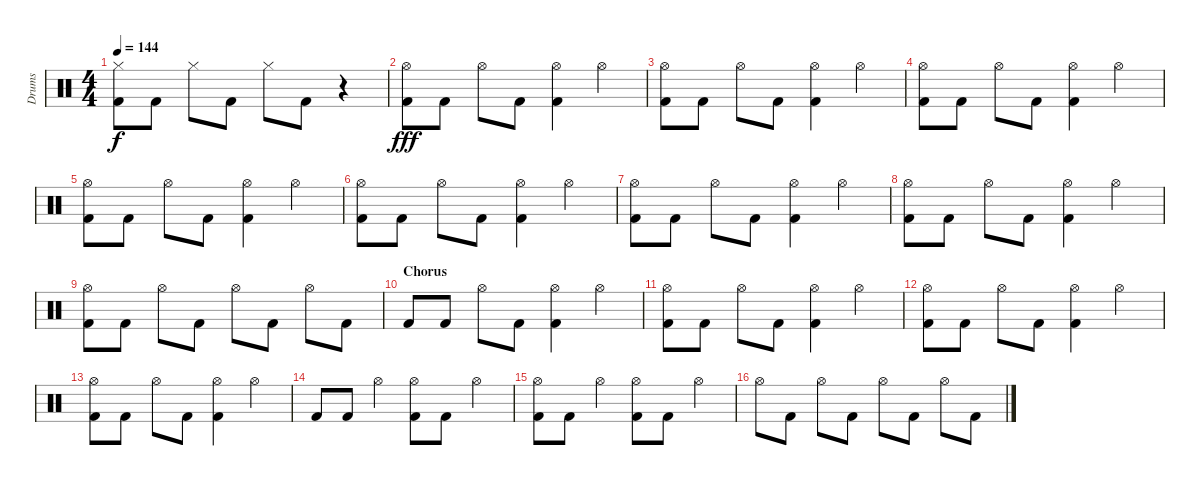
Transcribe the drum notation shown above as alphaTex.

\track ("Drums" "Drums") {instrument percussion}
\staff {score}
\articulation defaults
\ts (4 4)
\tempo 144
\clef neutral
\ks c
("Hi-Hat (closed)" "Kick (hit) 2").8{dy f} "Kick (hit) 2".8 "Hi-Hat (closed)".8 "Kick (hit) 2".8 "Hi-Hat (closed)".8 "Kick (hit) 2".8 r.4 |
("Hi-Hat (open)" "Kick (hit) 2").8{dy fff} "Kick (hit) 2".8 "Hi-Hat (open)".8 "Kick (hit) 2".8 ("Hi-Hat (open)" "Kick (hit) 2").4 "Hi-Hat (open)".4 |
("Hi-Hat (open)" "Kick (hit) 2").8 "Kick (hit) 2".8 "Hi-Hat (open)".8 "Kick (hit) 2".8 ("Hi-Hat (open)" "Kick (hit) 2").4 "Hi-Hat (open)".4 |
("Hi-Hat (open)" "Kick (hit) 2").8 "Kick (hit) 2".8 "Hi-Hat (open)".8 "Kick (hit) 2".8 ("Hi-Hat (open)" "Kick (hit) 2").4 "Hi-Hat (open)".4 |
("Hi-Hat (open)" "Kick (hit) 2").8 "Kick (hit) 2".8 "Hi-Hat (open)".8 "Kick (hit) 2".8 ("Hi-Hat (open)" "Kick (hit) 2").4 "Hi-Hat (open)".4 |
("Hi-Hat (open)" "Kick (hit) 2").8 "Kick (hit) 2".8 "Hi-Hat (open)".8 "Kick (hit) 2".8 ("Hi-Hat (open)" "Kick (hit) 2").4 "Hi-Hat (open)".4 |
("Hi-Hat (open)" "Kick (hit) 2").8 "Kick (hit) 2".8 "Hi-Hat (open)".8 "Kick (hit) 2".8 ("Hi-Hat (open)" "Kick (hit) 2").4 "Hi-Hat (open)".4 |
("Hi-Hat (open)" "Kick (hit) 2").8 "Kick (hit) 2".8 "Hi-Hat (open)".8 "Kick (hit) 2".8 ("Hi-Hat (open)" "Kick (hit) 2").4 "Hi-Hat (open)".4 |
("Hi-Hat (open)" "Kick (hit) 2").8 "Kick (hit) 2".8 "Hi-Hat (open)".8 "Kick (hit) 2".8 "Hi-Hat (open)".8 "Kick (hit) 2".8 "Hi-Hat (open)".8 "Kick (hit) 2".8 |
\section ("" "Chorus")
"Kick (hit) 2".8 "Kick (hit) 2".8 "Hi-Hat (open)".8 "Kick (hit) 2".8 ("Hi-Hat (open)" "Kick (hit) 2").4 "Hi-Hat (open)".4 |
("Hi-Hat (open)" "Kick (hit) 2").8 "Kick (hit) 2".8 "Hi-Hat (open)".8 "Kick (hit) 2".8 ("Hi-Hat (open)" "Kick (hit) 2").4 "Hi-Hat (open)".4 |
("Hi-Hat (open)" "Kick (hit) 2").8 "Kick (hit) 2".8 "Hi-Hat (open)".8 "Kick (hit) 2".8 ("Hi-Hat (open)" "Kick (hit) 2").4 "Hi-Hat (open)".4 |
("Hi-Hat (open)" "Kick (hit) 2").8 "Kick (hit) 2".8 "Hi-Hat (open)".8 "Kick (hit) 2".8 ("Hi-Hat (open)" "Kick (hit) 2").4 "Hi-Hat (open)".4 |
"Kick (hit) 2".8 "Kick (hit) 2".8 "Hi-Hat (open)".4 ("Hi-Hat (open)" "Kick (hit) 2").8 "Kick (hit) 2".8 "Hi-Hat (open)".4 |
("Hi-Hat (open)" "Kick (hit) 2").8 "Kick (hit) 2".8 "Hi-Hat (open)".4 ("Hi-Hat (open)" "Kick (hit) 2").8 "Kick (hit) 2".8 "Hi-Hat (open)".4 |
"Hi-Hat (open)".8 "Kick (hit) 2".8 "Hi-Hat (open)".8 "Kick (hit) 2".8 "Hi-Hat (open)".8 "Kick (hit) 2".8 "Hi-Hat (open)".8 "Kick (hit) 2".8
